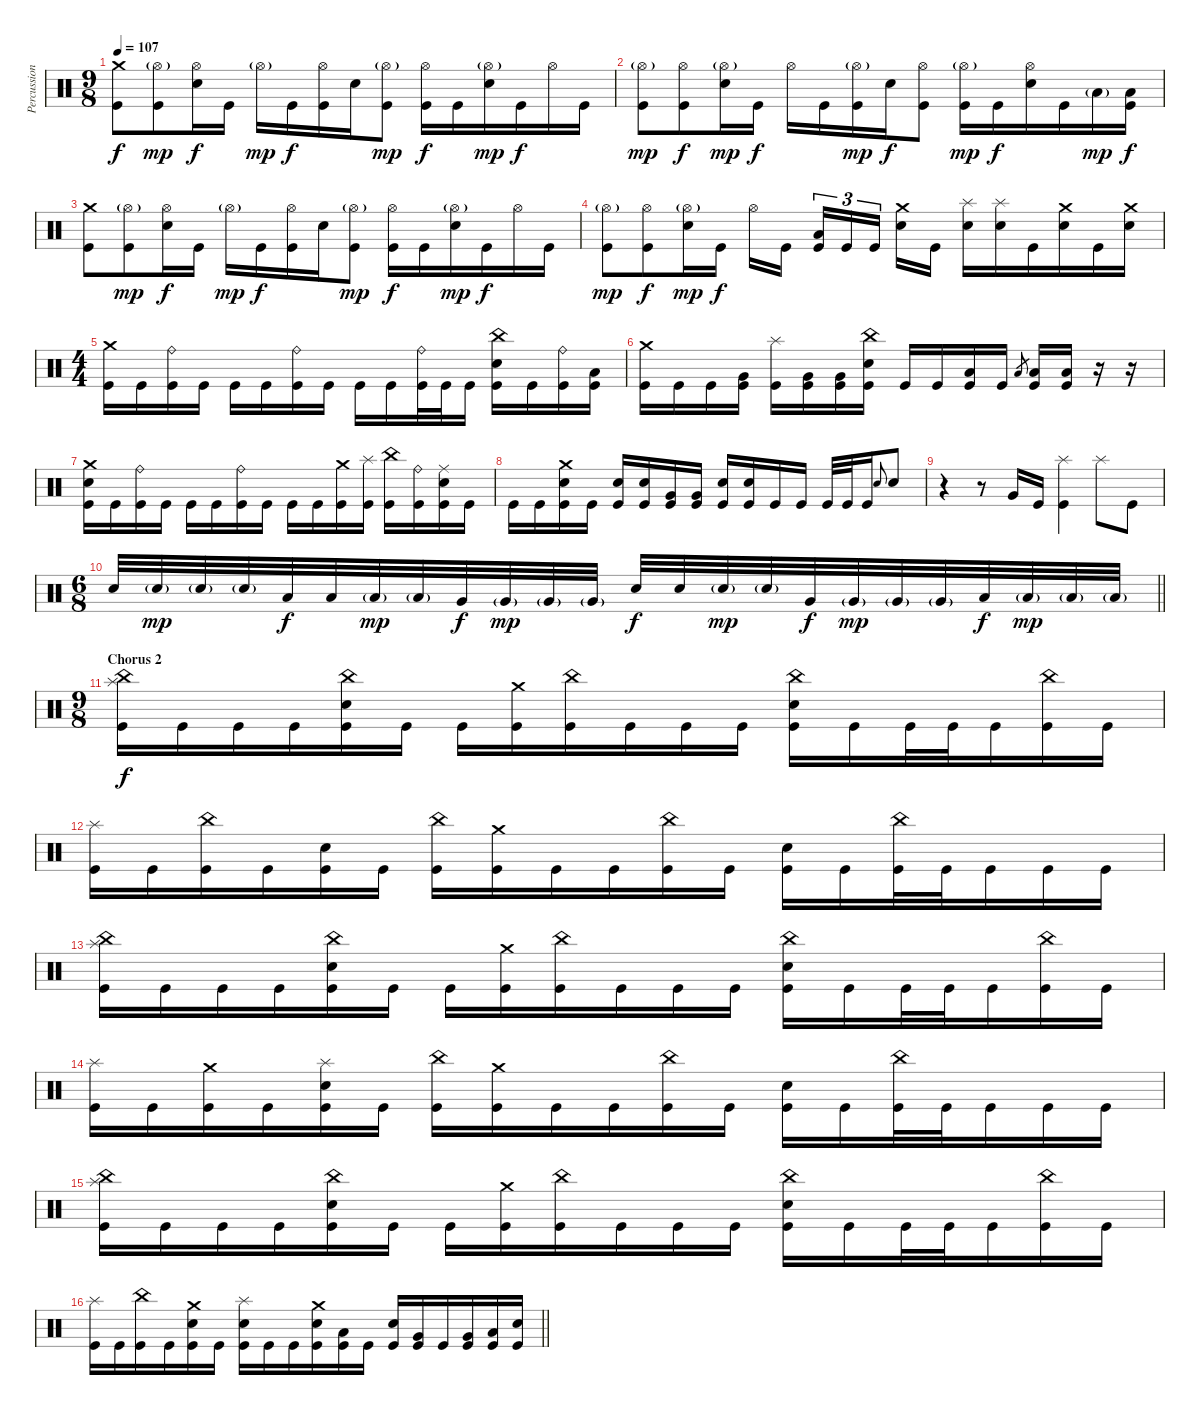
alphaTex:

\track ("Percussion" "Percussion") {instrument percussion}
\staff {score}
\articulation defaults
\ts (9 8)
\tempo 107
\clef neutral
\ks c
("Crash medium (hit)" "Kick (hit)").8{dy f} ("Hi-Hat (open)"{g} "Kick (hit)").8{dy mp} ("Hi-Hat (open)" "Electric Snare (hit)").16{dy f} "Kick (hit)".16 "Hi-Hat (open)"{g}.16{dy mp} "Kick (hit)".16{dy f} ("Hi-Hat (open)" "Kick (hit)").16 "Electric Snare (hit)".16 ("Hi-Hat (open)"{g} "Kick (hit)").8{dy mp} ("Hi-Hat (open)" "Kick (hit)").16{dy f} "Kick (hit)".16 ("Hi-Hat (open)"{g} "Electric Snare (hit)").16{dy mp} "Kick (hit)".16{dy f} "Hi-Hat (open)".16 "Kick (hit)".16 |
("Hi-Hat (open)"{g} "Kick (hit)").8{dy mp} ("Hi-Hat (open)" "Kick (hit)").8{dy f} ("Hi-Hat (open)"{g} "Electric Snare (hit)").16{dy mp} "Kick (hit)".16{dy f} "Hi-Hat (open)".16 "Kick (hit)".16 ("Hi-Hat (open)"{g} "Kick (hit)").16{dy mp} "Electric Snare (hit)".16{dy f} ("Hi-Hat (open)" "Kick (hit)").8 ("Hi-Hat (open)"{g} "Kick (hit)").16{dy mp} "Kick (hit)".16{dy f} ("Hi-Hat (open)" "Electric Snare (hit)").16 "Kick (hit)".16 "Low Tom (hit)"{g}.16{dy mp} ("Low Floor Tom (hit)" "Kick (hit)").16{dy f} |
("Crash medium (hit)" "Kick (hit)").8 ("Hi-Hat (open)"{g} "Kick (hit)").8{dy mp} ("Hi-Hat (open)" "Electric Snare (hit)").16{dy f} "Kick (hit)".16 "Hi-Hat (open)"{g}.16{dy mp} "Kick (hit)".16{dy f} ("Hi-Hat (open)" "Kick (hit)").16 "Electric Snare (hit)".16 ("Hi-Hat (open)"{g} "Kick (hit)").8{dy mp} ("Hi-Hat (open)" "Kick (hit)").16{dy f} "Kick (hit)".16 ("Hi-Hat (open)"{g} "Electric Snare (hit)").16{dy mp} "Kick (hit)".16{dy f} "Hi-Hat (open)".16 "Kick (hit)".16 |
("Hi-Hat (open)"{g} "Kick (hit)").8{dy mp} ("Hi-Hat (open)" "Kick (hit)").8{dy f} ("Hi-Hat (open)"{g} "Electric Snare (hit)").16{dy mp} "Kick (hit)".16{dy f} "Hi-Hat (open)".16 "Kick (hit)".16{beam splitsecondary} ("Low Floor Tom (hit)" "Kick (hit)").16{tu (3 2)} "Kick (hit)".16{tu (3 2)} "Kick (hit)".16{tu (3 2) beam splitsecondary} ("Crash medium (hit)" "Electric Snare (hit)").16 "Kick (hit)".16 ("Splash (hit)" "Electric Snare (hit)").16 ("Splash (hit)" "Electric Snare (hit)").16 "Kick (hit)".16 ("Crash medium (hit)" "Electric Snare (hit)").16 "Kick (hit)".16 ("Crash medium (hit)" "Electric Snare (hit)").16 |
\ts (4 4)
("Crash medium (hit)" "Kick (hit)").16 "Kick (hit)".16 ("Ride (bell)" "Kick (hit)").16 "Kick (hit)".16 "Kick (hit)".16 "Kick (hit)".16 ("Ride (bell)" "Kick (hit)").16 "Kick (hit)".16 "Kick (hit)".16 "Kick (hit)".16 ("Ride (bell)" "Kick (hit)").32 "Kick (hit)".32 "Kick (hit)".16 ("China (hit)" "Electric Snare (hit)" "Kick (hit)").16 "Kick (hit)".16 ("Ride (bell)" "Kick (hit)").16 ("Low Tom (hit)" "Kick (hit)").16 |
("Crash medium (hit)" "Kick (hit)").16 "Kick (hit)".16 "Kick (hit)".16 ("Very Low Tom (hit)" "Kick (hit)").16 ("Splash (hit)" "Kick (hit)").16 ("Very Low Tom (hit)" "Kick (hit)").16 ("Very Low Tom (hit)" "Kick (hit)").16 ("China (hit)" "Electric Snare (hit)" "Kick (hit)").16 "Kick (hit)".16 "Kick (hit)".16 ("Low Floor Tom (hit)" "Kick (hit)").16 "Kick (hit)".16 "Low Floor Tom (hit)".8{gr} ("Low Floor Tom (hit)" "Kick (hit)").16 ("Low Floor Tom (hit)" "Kick (hit)").16 r.16 r.16 |
("Crash medium (hit)" "Electric Snare (hit)" "Kick (hit)").16 "Kick (hit)".16 ("Ride (bell)" "Kick (hit)").16 "Kick (hit)".16 "Kick (hit)".16 "Kick (hit)".16 ("Ride (bell)" "Kick (hit)").16 "Kick (hit)".16 "Kick (hit)".16 "Kick (hit)".16 ("Crash medium (hit)" "Kick (hit)").16 ("Splash (hit)" "Kick (hit)").16 ("China (hit)" "Kick (hit)").16 ("Ride (bell)" "Kick (hit)").16 ("Ride (middle)" "Electric Snare (hit)" "Kick (hit)").16 "Kick (hit)".16 |
"Kick (hit)".16 "Kick (hit)".16 ("Crash medium (hit)" "Electric Snare (hit)" "Kick (hit)").16 "Kick (hit)".16 ("Electric Snare (hit)" "Kick (hit)").16 ("Electric Snare (hit)" "Kick (hit)").16 ("Very Low Tom (hit)" "Kick (hit)").16 ("Very Low Tom (hit)" "Kick (hit)").16 ("Electric Snare (hit)" "Kick (hit)").16 ("Electric Snare (hit)" "Kick (hit)").16 "Kick (hit)".16 "Kick (hit)".16 "Kick (hit)".32 "Kick (hit)".32 "Kick (hit)".16 "Electric Snare (hit)".8{gr onbeat} "Electric Snare (hit)".8 |
r.4 r.8 "Very Low Tom (hit)".16 "Kick (hit)".16 ("Splash (hit)" "Kick (hit)").4 "Splash (hit)".8 "Kick (hit)".8 |
\ts (6 8)
\barLineRight lightlight "Electric Snare (hit)".32 "Electric Snare (hit)"{g}.32{dy mp} "Electric Snare (hit)"{g}.32 "Electric Snare (hit)"{g}.32 "Low Tom (hit)".32{dy f} "Low Tom (hit)".32 "Low Tom (hit)"{g}.32{dy mp} "Low Tom (hit)"{g}.32 "Very Low Tom (hit)".32{dy f} "Very Low Tom (hit)"{g}.32{dy mp} "Very Low Tom (hit)"{g}.32 "Very Low Tom (hit)"{g}.32 "Electric Snare (hit)".32{dy f} "Electric Snare (hit)".32 "Electric Snare (hit)"{g}.32{dy mp} "Electric Snare (hit)"{g}.32 "Very Low Tom (hit)".32{dy f} "Very Low Tom (hit)"{g}.32{dy mp} "Very Low Tom (hit)"{g}.32 "Very Low Tom (hit)"{g}.32 "Low Floor Tom (hit)".32{dy f} "Low Floor Tom (hit)"{g}.32{dy mp} "Low Floor Tom (hit)"{g}.32 "Low Floor Tom (hit)"{g}.32
|
\ts (9 8)
\section ("" "Chorus 2")
("China (hit)" "Splash (hit)" "Kick (hit)").16{dy f} "Kick (hit)".16 "Kick (hit)".16 "Kick (hit)".16 ("China (hit)" "Electric Snare (hit)" "Kick (hit)").16 "Kick (hit)".16 "Kick (hit)".16 ("Crash medium (hit)" "Kick (hit)").16 ("China (hit)" "Kick (hit)").16 "Kick (hit)".16 "Kick (hit)".16 "Kick (hit)".16 ("China (hit)" "Electric Snare (hit)" "Kick (hit)").16 "Kick (hit)".16 "Kick (hit)".32 "Kick (hit)".32 "Kick (hit)".16 ("China (hit)" "Kick (hit)").16 "Kick (hit)".16 |
("Splash (hit)" "Kick (hit)").16 "Kick (hit)".16 ("China (hit)" "Kick (hit)").16 "Kick (hit)".16 ("Electric Snare (hit)" "Kick (hit)").16 "Kick (hit)".16 ("China (hit)" "Kick (hit)").16 ("Crash medium (hit)" "Kick (hit)").16 "Kick (hit)".16 "Kick (hit)".16 ("China (hit)" "Kick (hit)").16 "Kick (hit)".16 ("Electric Snare (hit)" "Kick (hit)").16 "Kick (hit)".16 ("China (hit)" "Kick (hit)").32 "Kick (hit)".32 "Kick (hit)".16 "Kick (hit)".16 "Kick (hit)".16 |
("China (hit)" "Splash (hit)" "Kick (hit)").16 "Kick (hit)".16 "Kick (hit)".16 "Kick (hit)".16 ("China (hit)" "Electric Snare (hit)" "Kick (hit)").16 "Kick (hit)".16 "Kick (hit)".16 ("Crash medium (hit)" "Kick (hit)").16 ("China (hit)" "Kick (hit)").16 "Kick (hit)".16 "Kick (hit)".16 "Kick (hit)".16 ("China (hit)" "Electric Snare (hit)" "Kick (hit)").16 "Kick (hit)".16 "Kick (hit)".32 "Kick (hit)".32 "Kick (hit)".16 ("China (hit)" "Kick (hit)").16 "Kick (hit)".16 |
("Splash (hit)" "Kick (hit)").16 "Kick (hit)".16 ("Crash medium (hit)" "Kick (hit)").16 "Kick (hit)".16 ("Splash (hit)" "Electric Snare (hit)" "Kick (hit)").16 "Kick (hit)".16 ("China (hit)" "Kick (hit)").16 ("Crash medium (hit)" "Kick (hit)").16 "Kick (hit)".16 "Kick (hit)".16 ("China (hit)" "Kick (hit)").16 "Kick (hit)".16 ("Electric Snare (hit)" "Kick (hit)").16 "Kick (hit)".16 ("China (hit)" "Kick (hit)").32 "Kick (hit)".32 "Kick (hit)".16 "Kick (hit)".16 "Kick (hit)".16 |
("China (hit)" "Splash (hit)" "Kick (hit)").16 "Kick (hit)".16 "Kick (hit)".16 "Kick (hit)".16 ("China (hit)" "Electric Snare (hit)" "Kick (hit)").16 "Kick (hit)".16 "Kick (hit)".16 ("Crash medium (hit)" "Kick (hit)").16 ("China (hit)" "Kick (hit)").16 "Kick (hit)".16 "Kick (hit)".16 "Kick (hit)".16 ("China (hit)" "Electric Snare (hit)" "Kick (hit)").16 "Kick (hit)".16 "Kick (hit)".32 "Kick (hit)".32 "Kick (hit)".16 ("China (hit)" "Kick (hit)").16 "Kick (hit)".16 |
\barLineRight lightlight
("Splash (hit)" "Kick (hit)").16 "Kick (hit)".16 ("China (hit)" "Kick (hit)").16 "Kick (hit)".16 ("Crash medium (hit)" "Electric Snare (hit)" "Kick (hit)").16 "Kick (hit)".16 ("Splash (hit)" "Electric Snare (hit)" "Kick (hit)").16 "Kick (hit)".16 "Kick (hit)".16 ("Crash medium (hit)" "Electric Snare (hit)" "Kick (hit)").16 ("Low Tom (hit)" "Kick (hit)").16 "Kick (hit)".16 ("Electric Snare (hit)" "Kick (hit)").16 ("Very Low Tom (hit)" "Kick (hit)").16 "Kick (hit)".16 ("Very Low Tom (hit)" "Kick (hit)").16 ("Low Floor Tom (hit)" "Kick (hit)").16 ("Electric Snare (hit)" "Kick (hit)").16
